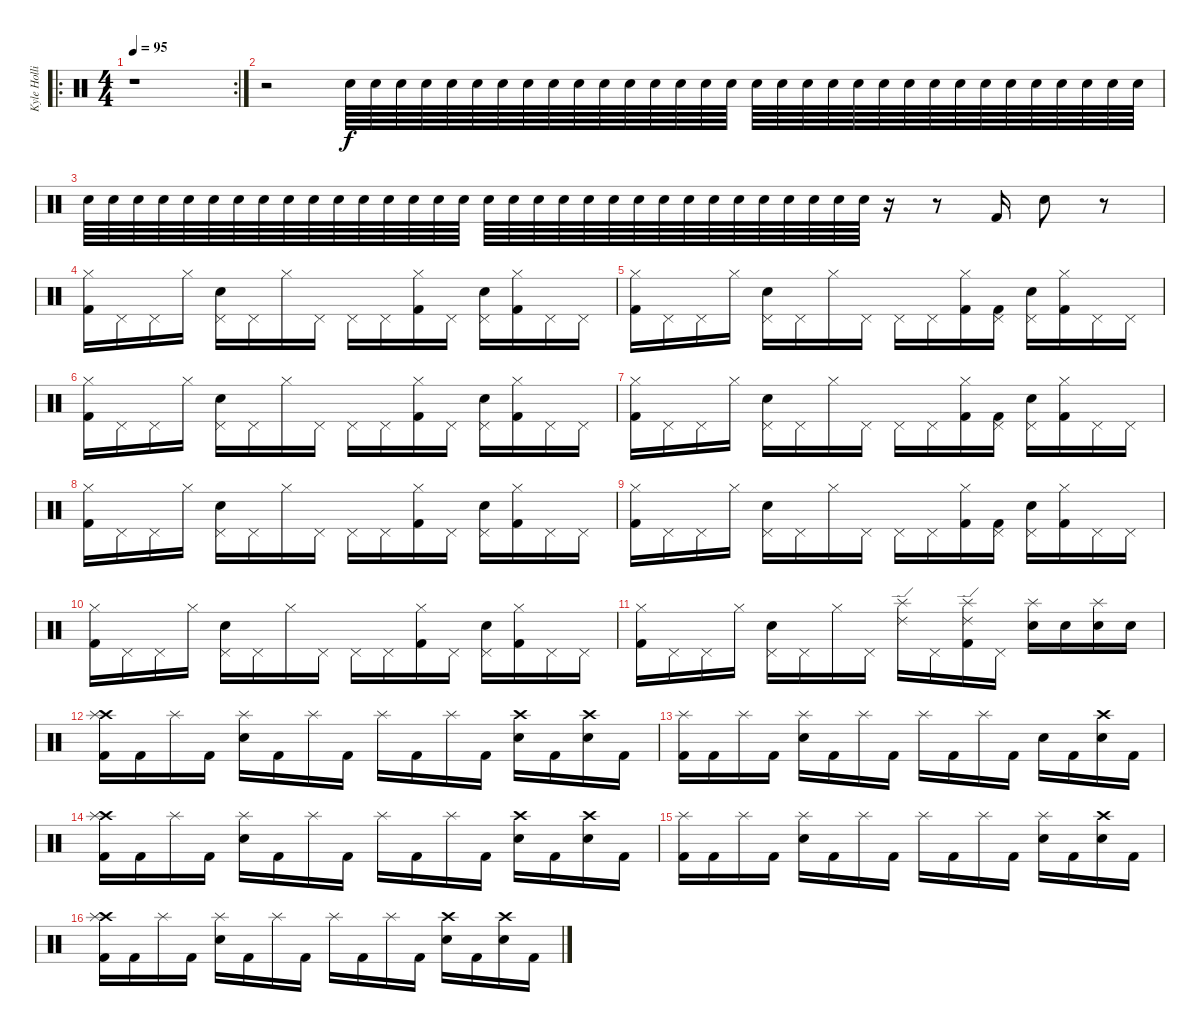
\track ("Kyle Hollinger - Drums" "Kyle Holli") {instrument percussion}
\staff {score}
\articulation defaults
\ro
\rc 2
\ts (4 4)
\tempo 95
\clef neutral
\ks c
r.1{dy f} |
r.2 "Electric Snare (hit)".64{volume 3} "Electric Snare (hit)".64 "Electric Snare (hit)".64 "Electric Snare (hit)".64 "Electric Snare (hit)".64 "Electric Snare (hit)".64 "Electric Snare (hit)".64 "Electric Snare (hit)".64 "Electric Snare (hit)".64 "Electric Snare (hit)".64 "Electric Snare (hit)".64 "Electric Snare (hit)".64 "Electric Snare (hit)".64 "Electric Snare (hit)".64 "Electric Snare (hit)".64 "Electric Snare (hit)".64 "Electric Snare (hit)".64{volume 4} "Electric Snare (hit)".64 "Electric Snare (hit)".64 "Electric Snare (hit)".64 "Electric Snare (hit)".64 "Electric Snare (hit)".64 "Electric Snare (hit)".64 "Electric Snare (hit)".64 "Electric Snare (hit)".64 "Electric Snare (hit)".64 "Electric Snare (hit)".64 "Electric Snare (hit)".64 "Electric Snare (hit)".64 "Electric Snare (hit)".64 "Electric Snare (hit)".64 "Electric Snare (hit)".64 |
"Electric Snare (hit)".64{volume 5} "Electric Snare (hit)".64 "Electric Snare (hit)".64 "Electric Snare (hit)".64 "Electric Snare (hit)".64 "Electric Snare (hit)".64 "Electric Snare (hit)".64 "Electric Snare (hit)".64 "Electric Snare (hit)".64 "Electric Snare (hit)".64 "Electric Snare (hit)".64 "Electric Snare (hit)".64 "Electric Snare (hit)".64 "Electric Snare (hit)".64 "Electric Snare (hit)".64 "Electric Snare (hit)".64 "Electric Snare (hit)".64{volume 6} "Electric Snare (hit)".64 "Electric Snare (hit)".64 "Electric Snare (hit)".64 "Electric Snare (hit)".64 "Electric Snare (hit)".64 "Electric Snare (hit)".64 "Electric Snare (hit)".64 "Electric Snare (hit)".64 "Electric Snare (hit)".64 "Electric Snare (hit)".64 "Electric Snare (hit)".64 "Electric Snare (hit)".64 "Electric Snare (hit)".64 "Electric Snare (hit)".64 "Electric Snare (hit)".64 r.16{volume 16} r.8 "Kick (hit) 2".16 "Electric Snare (hit)".8 r.8 |
("Hi-Hat (closed)" "Kick (hit) 2").16 "Pedal Hi-Hat (hit)".16{volume 5} "Pedal Hi-Hat (hit)".16 "Hi-Hat (closed)".16{volume 16} ("Pedal Hi-Hat (hit)" "Electric Snare (hit)").16 "Pedal Hi-Hat (hit)".16{volume 5} "Hi-Hat (closed)".16{volume 16} "Pedal Hi-Hat (hit)".16{volume 5} "Pedal Hi-Hat (hit)".16 "Pedal Hi-Hat (hit)".16{volume 5} ("Hi-Hat (closed)" "Kick (hit) 2").16{volume 16} "Pedal Hi-Hat (hit)".16{volume 5} ("Pedal Hi-Hat (hit)" "Electric Snare (hit)").16{volume 16} ("Hi-Hat (closed)" "Kick (hit) 2").16 "Pedal Hi-Hat (hit)".16{volume 5} "Pedal Hi-Hat (hit)".16 |
("Hi-Hat (closed)" "Kick (hit) 2").16{volume 16} "Pedal Hi-Hat (hit)".16{volume 5} "Pedal Hi-Hat (hit)".16 "Hi-Hat (closed)".16{volume 16} ("Pedal Hi-Hat (hit)" "Electric Snare (hit)").16 "Pedal Hi-Hat (hit)".16{volume 5} "Hi-Hat (closed)".16{volume 16} "Pedal Hi-Hat (hit)".16{volume 5} "Pedal Hi-Hat (hit)".16 "Pedal Hi-Hat (hit)".16{volume 5} ("Hi-Hat (closed)" "Kick (hit) 2").16{volume 16} ("Pedal Hi-Hat (hit)" "Kick (hit) 2").16{volume 16} ("Pedal Hi-Hat (hit)" "Electric Snare (hit)").16{volume 16} ("Hi-Hat (closed)" "Kick (hit) 2").16 "Pedal Hi-Hat (hit)".16{volume 5} "Pedal Hi-Hat (hit)".16 |
("Hi-Hat (closed)" "Kick (hit) 2").16{volume 16} "Pedal Hi-Hat (hit)".16{volume 5} "Pedal Hi-Hat (hit)".16 "Hi-Hat (closed)".16{volume 16} ("Pedal Hi-Hat (hit)" "Electric Snare (hit)").16 "Pedal Hi-Hat (hit)".16{volume 5} "Hi-Hat (closed)".16{volume 16} "Pedal Hi-Hat (hit)".16{volume 5} "Pedal Hi-Hat (hit)".16 "Pedal Hi-Hat (hit)".16{volume 5} ("Hi-Hat (closed)" "Kick (hit) 2").16{volume 16} "Pedal Hi-Hat (hit)".16{volume 5} ("Pedal Hi-Hat (hit)" "Electric Snare (hit)").16{volume 16} ("Hi-Hat (closed)" "Kick (hit) 2").16 "Pedal Hi-Hat (hit)".16{volume 5} "Pedal Hi-Hat (hit)".16 |
("Hi-Hat (closed)" "Kick (hit) 2").16{volume 16} "Pedal Hi-Hat (hit)".16{volume 5} "Pedal Hi-Hat (hit)".16 "Hi-Hat (closed)".16{volume 16} ("Pedal Hi-Hat (hit)" "Electric Snare (hit)").16 "Pedal Hi-Hat (hit)".16{volume 5} "Hi-Hat (closed)".16{volume 16} "Pedal Hi-Hat (hit)".16{volume 5} "Pedal Hi-Hat (hit)".16 "Pedal Hi-Hat (hit)".16{volume 5} ("Hi-Hat (closed)" "Kick (hit) 2").16{volume 16} ("Pedal Hi-Hat (hit)" "Kick (hit) 2").16{volume 16} ("Pedal Hi-Hat (hit)" "Electric Snare (hit)").16{volume 16} ("Hi-Hat (closed)" "Kick (hit) 2").16 "Pedal Hi-Hat (hit)".16{volume 5} "Pedal Hi-Hat (hit)".16 |
("Hi-Hat (closed)" "Kick (hit) 2").16{volume 16} "Pedal Hi-Hat (hit)".16{volume 5} "Pedal Hi-Hat (hit)".16 "Hi-Hat (closed)".16{volume 16} ("Pedal Hi-Hat (hit)" "Electric Snare (hit)").16 "Pedal Hi-Hat (hit)".16{volume 5} "Hi-Hat (closed)".16{volume 16} "Pedal Hi-Hat (hit)".16{volume 5} "Pedal Hi-Hat (hit)".16 "Pedal Hi-Hat (hit)".16{volume 5} ("Hi-Hat (closed)" "Kick (hit) 2").16{volume 16} "Pedal Hi-Hat (hit)".16{volume 5} ("Pedal Hi-Hat (hit)" "Electric Snare (hit)").16{volume 16} ("Hi-Hat (closed)" "Kick (hit) 2").16 "Pedal Hi-Hat (hit)".16{volume 5} "Pedal Hi-Hat (hit)".16 |
("Hi-Hat (closed)" "Kick (hit) 2").16{volume 16} "Pedal Hi-Hat (hit)".16{volume 5} "Pedal Hi-Hat (hit)".16 "Hi-Hat (closed)".16{volume 16} ("Pedal Hi-Hat (hit)" "Electric Snare (hit)").16 "Pedal Hi-Hat (hit)".16{volume 5} "Hi-Hat (closed)".16{volume 16} "Pedal Hi-Hat (hit)".16{volume 5} "Pedal Hi-Hat (hit)".16 "Pedal Hi-Hat (hit)".16{volume 5} ("Hi-Hat (closed)" "Kick (hit) 2").16{volume 16} ("Pedal Hi-Hat (hit)" "Kick (hit) 2").16{volume 16} ("Pedal Hi-Hat (hit)" "Electric Snare (hit)").16{volume 16} ("Hi-Hat (closed)" "Kick (hit) 2").16 "Pedal Hi-Hat (hit)".16{volume 5} "Pedal Hi-Hat (hit)".16 |
("Hi-Hat (closed)" "Kick (hit) 2").16{volume 16} "Pedal Hi-Hat (hit)".16{volume 5} "Pedal Hi-Hat (hit)".16 "Hi-Hat (closed)".16{volume 16} ("Pedal Hi-Hat (hit)" "Electric Snare (hit)").16 "Pedal Hi-Hat (hit)".16{volume 5} "Hi-Hat (closed)".16{volume 16} "Pedal Hi-Hat (hit)".16{volume 5} "Pedal Hi-Hat (hit)".16 "Pedal Hi-Hat (hit)".16{volume 5} ("Hi-Hat (closed)" "Kick (hit) 2").16{volume 16} "Pedal Hi-Hat (hit)".16{volume 5} ("Pedal Hi-Hat (hit)" "Electric Snare (hit)").16{volume 16} ("Hi-Hat (closed)" "Kick (hit) 2").16 "Pedal Hi-Hat (hit)".16{volume 5} "Pedal Hi-Hat (hit)".16 |
("Hi-Hat (closed)" "Kick (hit) 2").16{volume 16} "Pedal Hi-Hat (hit)".16{volume 5} "Pedal Hi-Hat (hit)".16 "Hi-Hat (closed)".16{volume 16} ("Pedal Hi-Hat (hit)" "Electric Snare (hit)").16 "Pedal Hi-Hat (hit)".16{volume 5} "Hi-Hat (closed)".16{volume 16} "Pedal Hi-Hat (hit)".16{volume 5} ("Splash (hit)" "Ride (edge) 2").16{volume 16} "Pedal Hi-Hat (hit)".16 ("Splash (hit)" "Ride (edge) 2" "Kick (hit) 2").16{volume 16} "Pedal Hi-Hat (hit)".16{volume 16} ("Electric Snare (hit)" "Splash (hit)").16{volume 16} "Electric Snare (hit)".16 ("Electric Snare (hit)" "Splash (hit)").16 "Electric Snare (hit)".16 |
("Crash high (hit)" "Splash (hit)" "Kick (hit) 2").16 "Kick (hit) 2".16 "Splash (hit)".16 "Kick (hit) 2".16 ("Electric Snare (hit)" "Splash (hit)").16 "Kick (hit) 2".16 "Splash (hit)".16 "Kick (hit) 2".16 "Splash (hit)".16 "Kick (hit) 2".16 "Splash (hit)".16 "Kick (hit) 2".16 ("Crash high (hit)" "Electric Snare (hit)").16 "Kick (hit) 2".16 ("Crash high (hit)" "Electric Snare (hit)").16 "Kick (hit) 2".16 |
("Splash (hit)" "Kick (hit) 2").16 "Kick (hit) 2".16 "Splash (hit)".16 "Kick (hit) 2".16 ("Electric Snare (hit)" "Splash (hit)").16 "Kick (hit) 2".16 "Splash (hit)".16 "Kick (hit) 2".16 "Splash (hit)".16 "Kick (hit) 2".16 "Splash (hit)".16 "Kick (hit) 2".16 "Electric Snare (hit)".16 "Kick (hit) 2".16 ("Crash high (hit)" "Electric Snare (hit)").16 "Kick (hit) 2".16 |
("Crash high (hit)" "Splash (hit)" "Kick (hit) 2").16 "Kick (hit) 2".16 "Splash (hit)".16 "Kick (hit) 2".16 ("Electric Snare (hit)" "Splash (hit)").16 "Kick (hit) 2".16 "Splash (hit)".16 "Kick (hit) 2".16 "Splash (hit)".16 "Kick (hit) 2".16 "Splash (hit)".16 "Kick (hit) 2".16 ("Crash high (hit)" "Electric Snare (hit)").16 "Kick (hit) 2".16 ("Crash high (hit)" "Electric Snare (hit)").16 "Kick (hit) 2".16 |
("Splash (hit)" "Kick (hit) 2").16 "Kick (hit) 2".16 "Splash (hit)".16 "Kick (hit) 2".16 ("Electric Snare (hit)" "Splash (hit)").16 "Kick (hit) 2".16 "Splash (hit)".16 "Kick (hit) 2".16 "Splash (hit)".16 "Kick (hit) 2".16 "Splash (hit)".16 "Kick (hit) 2".16 ("Electric Snare (hit)" "Splash (hit)").16 "Kick (hit) 2".16 ("Crash high (hit)" "Electric Snare (hit)").16 "Kick (hit) 2".16 |
("Crash high (hit)" "Splash (hit)" "Kick (hit) 2").16 "Kick (hit) 2".16 "Splash (hit)".16 "Kick (hit) 2".16 ("Electric Snare (hit)" "Splash (hit)").16 "Kick (hit) 2".16 "Splash (hit)".16 "Kick (hit) 2".16 "Splash (hit)".16 "Kick (hit) 2".16 "Splash (hit)".16 "Kick (hit) 2".16 ("Crash high (hit)" "Electric Snare (hit)").16 "Kick (hit) 2".16 ("Crash high (hit)" "Electric Snare (hit)").16 "Kick (hit) 2".16
